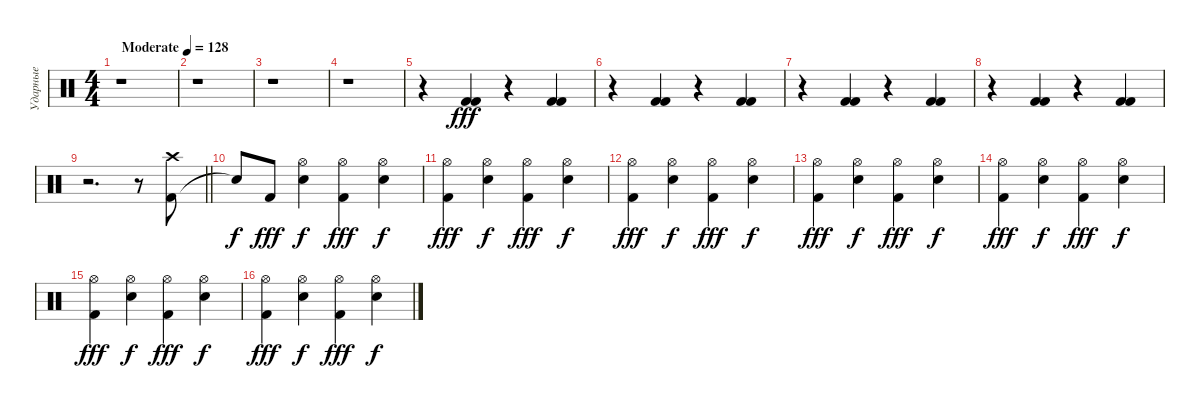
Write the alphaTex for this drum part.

\track ("Ударные" "Ударные") {instrument percussion}
\staff {score}
\articulation defaults
\ts (4 4)
\tempo (128 "Moderate")
\clef neutral
\ks c
r.1{dy fff} |
r.1 |
r.1 |
r.1 |
r.4 ("Kick (hit) 2" "Kick (hit) 2").4 r.4 ("Kick (hit) 2" "Kick (hit) 2").4 |
r.4 ("Kick (hit) 2" "Kick (hit) 2").4 r.4 ("Kick (hit) 2" "Kick (hit) 2").4 |
r.4 ("Kick (hit) 2" "Kick (hit) 2").4 r.4 ("Kick (hit) 2" "Kick (hit) 2").4 |
r.4 ("Kick (hit) 2" "Kick (hit) 2").4 r.4 ("Kick (hit) 2" "Kick (hit) 2").4 |
\barLineRight lightlight
r.2{d} r.8 ("Kick (hit) 2" "Crash high (hit)").8 |
"Snare (hit)"{t}.8{dy f} "Kick (hit) 2".8{dy fff} ("Snare (hit) 2" "Hi-Hat (open)").4{dy f} ("Kick (hit) 2" "Hi-Hat (open)").4{dy fff} ("Snare (hit) 2" "Hi-Hat (open)").4{dy f} |
("Kick (hit) 2" "Hi-Hat (open)").4{dy fff} ("Snare (hit) 2" "Hi-Hat (open)").4{dy f} ("Kick (hit) 2" "Hi-Hat (open)").4{dy fff} ("Snare (hit) 2" "Hi-Hat (open)").4{dy f} |
("Kick (hit) 2" "Hi-Hat (open)").4{dy fff} ("Snare (hit) 2" "Hi-Hat (open)").4{dy f} ("Kick (hit) 2" "Hi-Hat (open)").4{dy fff} ("Snare (hit) 2" "Hi-Hat (open)").4{dy f} |
("Kick (hit) 2" "Hi-Hat (open)").4{dy fff} ("Snare (hit) 2" "Hi-Hat (open)").4{dy f} ("Kick (hit) 2" "Hi-Hat (open)").4{dy fff} ("Snare (hit) 2" "Hi-Hat (open)").4{dy f} |
("Kick (hit) 2" "Hi-Hat (open)").4{dy fff} ("Snare (hit) 2" "Hi-Hat (open)").4{dy f} ("Kick (hit) 2" "Hi-Hat (open)").4{dy fff} ("Snare (hit) 2" "Hi-Hat (open)").4{dy f} |
("Kick (hit) 2" "Hi-Hat (open)").4{dy fff} ("Snare (hit) 2" "Hi-Hat (open)").4{dy f} ("Kick (hit) 2" "Hi-Hat (open)").4{dy fff} ("Snare (hit) 2" "Hi-Hat (open)").4{dy f} |
("Kick (hit) 2" "Hi-Hat (open)").4{dy fff} ("Snare (hit) 2" "Hi-Hat (open)").4{dy f} ("Kick (hit) 2" "Hi-Hat (open)").4{dy fff} ("Snare (hit) 2" "Hi-Hat (open)").4{dy f}
